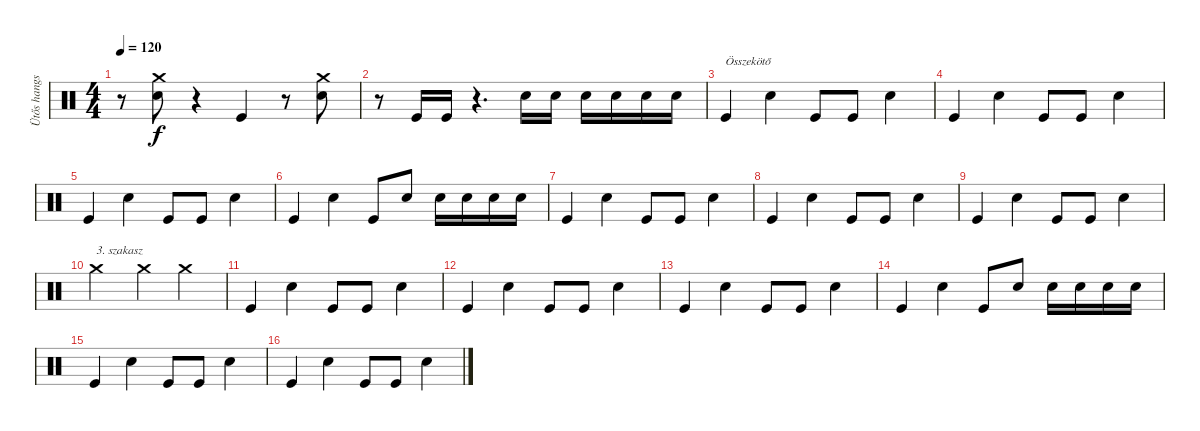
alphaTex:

\track ("Ütős hangszer" "Ütős hangs") {instrument percussion}
\staff {score}
\articulation defaults
\ts (4 4)
\tempo 120
\clef neutral
\ks c
r.8{dy f} ("Crash medium (hit)" "Snare (hit) 2").8 r.4 "Kick (hit)".4 r.8 ("Crash medium (hit)" "Snare (hit) 2").8 |
r.8 "Kick (hit)".16 "Kick (hit)".16 r.4{d} "Snare (hit) 2".16 "Snare (hit) 2".16 "Snare (hit) 2".16 "Snare (hit) 2".16 "Snare (hit) 2".16 "Snare (hit) 2".16 |
"Kick (hit)".4{txt "Összekötő"} "Snare (hit) 2".4 "Kick (hit)".8 "Kick (hit)".8 "Snare (hit) 2".4 |
"Kick (hit)".4 "Snare (hit) 2".4 "Kick (hit)".8 "Kick (hit)".8 "Snare (hit) 2".4 |
"Kick (hit)".4 "Snare (hit) 2".4 "Kick (hit)".8 "Kick (hit)".8 "Snare (hit) 2".4 |
"Kick (hit)".4 "Snare (hit) 2".4 "Kick (hit)".8 "Snare (hit) 2".8 "Snare (hit) 2".16 "Snare (hit) 2".16 "Snare (hit) 2".16 "Snare (hit) 2".16 |
"Kick (hit)".4 "Snare (hit) 2".4 "Kick (hit)".8 "Kick (hit)".8 "Snare (hit) 2".4 |
"Kick (hit)".4 "Snare (hit) 2".4 "Kick (hit)".8 "Kick (hit)".8 "Snare (hit) 2".4 |
"Kick (hit)".4 "Snare (hit) 2".4 "Kick (hit)".8 "Kick (hit)".8 "Snare (hit) 2".4 |
"Crash medium (hit)".2{txt "3. szakasz"} "Crash medium (hit)".4 "Crash medium (hit)".4 |
"Kick (hit)".4 "Snare (hit) 2".4 "Kick (hit)".8 "Kick (hit)".8 "Snare (hit) 2".4 |
"Kick (hit)".4 "Snare (hit) 2".4 "Kick (hit)".8 "Kick (hit)".8 "Snare (hit) 2".4 |
"Kick (hit)".4 "Snare (hit) 2".4 "Kick (hit)".8 "Kick (hit)".8 "Snare (hit) 2".4 |
"Kick (hit)".4 "Snare (hit) 2".4 "Kick (hit)".8 "Snare (hit) 2".8 "Snare (hit) 2".16 "Snare (hit) 2".16 "Snare (hit) 2".16 "Snare (hit) 2".16 |
"Kick (hit)".4 "Snare (hit) 2".4 "Kick (hit)".8 "Kick (hit)".8 "Snare (hit) 2".4 |
"Kick (hit)".4 "Snare (hit) 2".4 "Kick (hit)".8 "Kick (hit)".8 "Snare (hit) 2".4
